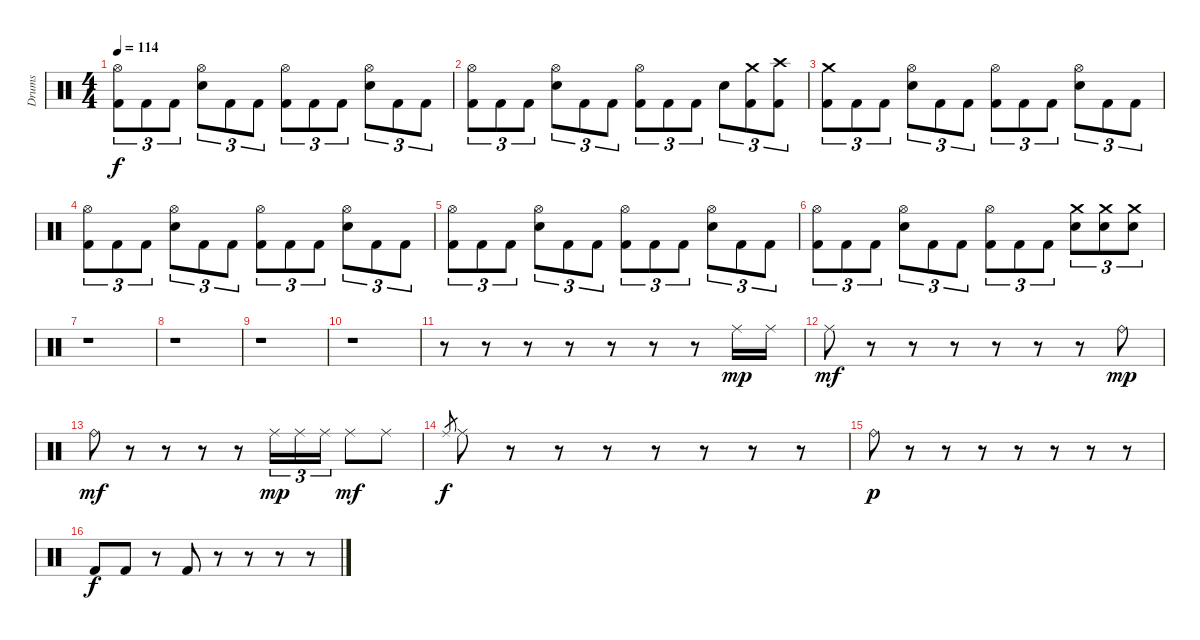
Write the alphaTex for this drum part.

\track ("Drums" "Drums") {instrument percussion}
\staff {score}
\articulation defaults
\ts (4 4)
\tempo 114
\clef neutral
\ks c
("Hi-Hat (open)" "Kick (hit) 2").8{tu (3 2) dy f} "Kick (hit) 2".8{tu (3 2)} "Kick (hit) 2".8{tu (3 2)} ("Hi-Hat (open)" "Snare (hit) 2").8{tu (3 2)} "Kick (hit) 2".8{tu (3 2)} "Kick (hit) 2".8{tu (3 2)} ("Hi-Hat (open)" "Kick (hit) 2").8{tu (3 2)} "Kick (hit) 2".8{tu (3 2)} "Kick (hit) 2".8{tu (3 2)} ("Hi-Hat (open)" "Snare (hit) 2").8{tu (3 2)} "Kick (hit) 2".8{tu (3 2)} "Kick (hit) 2".8{tu (3 2)} |
("Hi-Hat (open)" "Kick (hit) 2").8{tu (3 2)} "Kick (hit) 2".8{tu (3 2)} "Kick (hit) 2".8{tu (3 2)} ("Hi-Hat (open)" "Snare (hit) 2").8{tu (3 2)} "Kick (hit) 2".8{tu (3 2)} "Kick (hit) 2".8{tu (3 2)} ("Hi-Hat (open)" "Kick (hit) 2").8{tu (3 2)} "Kick (hit) 2".8{tu (3 2)} "Kick (hit) 2".8{tu (3 2)} "Snare (hit) 2".8{tu (3 2)} ("Crash medium (hit)" "Kick (hit) 2").8{tu (3 2)} ("Crash high (hit)" "Kick (hit) 2").8{tu (3 2)} |
("Crash medium (hit)" "Kick (hit) 2").8{tu (3 2)} "Kick (hit) 2".8{tu (3 2)} "Kick (hit) 2".8{tu (3 2)} ("Hi-Hat (open)" "Snare (hit) 2").8{tu (3 2)} "Kick (hit) 2".8{tu (3 2)} "Kick (hit) 2".8{tu (3 2)} ("Hi-Hat (open)" "Kick (hit) 2").8{tu (3 2)} "Kick (hit) 2".8{tu (3 2)} "Kick (hit) 2".8{tu (3 2)} ("Hi-Hat (open)" "Snare (hit) 2").8{tu (3 2)} "Kick (hit) 2".8{tu (3 2)} "Kick (hit) 2".8{tu (3 2)} |
("Hi-Hat (open)" "Kick (hit) 2").8{tu (3 2)} "Kick (hit) 2".8{tu (3 2)} "Kick (hit) 2".8{tu (3 2)} ("Hi-Hat (open)" "Snare (hit) 2").8{tu (3 2)} "Kick (hit) 2".8{tu (3 2)} "Kick (hit) 2".8{tu (3 2)} ("Hi-Hat (open)" "Kick (hit) 2").8{tu (3 2)} "Kick (hit) 2".8{tu (3 2)} "Kick (hit) 2".8{tu (3 2)} ("Hi-Hat (open)" "Snare (hit) 2").8{tu (3 2)} "Kick (hit) 2".8{tu (3 2)} "Kick (hit) 2".8{tu (3 2)} |
("Hi-Hat (open)" "Kick (hit) 2").8{tu (3 2)} "Kick (hit) 2".8{tu (3 2)} "Kick (hit) 2".8{tu (3 2)} ("Hi-Hat (open)" "Snare (hit) 2").8{tu (3 2)} "Kick (hit) 2".8{tu (3 2)} "Kick (hit) 2".8{tu (3 2)} ("Hi-Hat (open)" "Kick (hit) 2").8{tu (3 2)} "Kick (hit) 2".8{tu (3 2)} "Kick (hit) 2".8{tu (3 2)} ("Hi-Hat (open)" "Snare (hit) 2").8{tu (3 2)} "Kick (hit) 2".8{tu (3 2)} "Kick (hit) 2".8{tu (3 2)} |
("Hi-Hat (open)" "Kick (hit) 2").8{tu (3 2)} "Kick (hit) 2".8{tu (3 2)} "Kick (hit) 2".8{tu (3 2)} ("Hi-Hat (open)" "Snare (hit) 2").8{tu (3 2)} "Kick (hit) 2".8{tu (3 2)} "Kick (hit) 2".8{tu (3 2)} ("Hi-Hat (open)" "Kick (hit) 2").8{tu (3 2)} "Kick (hit) 2".8{tu (3 2)} "Kick (hit) 2".8{tu (3 2)} ("Crash medium (hit)" "Snare (hit) 2").8{tu (3 2)} ("Crash medium (hit)" "Snare (hit) 2").8{tu (3 2)} ("Crash medium (hit)" "Snare (hit) 2").8{tu (3 2)} |
r.1 |
r.1 |
r.1 |
r.1 |
r.8 r.8 r.8 r.8 r.8 r.8 r.8 "Ride (middle)".16{dy mp} "Ride (middle)".16 |
"Ride (middle)".8{dy mf} r.8 r.8 r.8 r.8 r.8 r.8 "Ride (bell)".8{dy mp} |
"Ride (bell)".8{dy mf} r.8 r.8 r.8 r.8 "Ride (middle)".16{tu (3 2) dy mp} "Ride (middle)".16{tu (3 2)} "Ride (middle)".16{tu (3 2)} "Ride (middle)".8{dy mf} "Ride (middle)".8 |
"Ride (middle)".8{gr dy f} "Ride (middle)".8 r.8 r.8 r.8 r.8 r.8 r.8 r.8 |
"Ride (bell)".8{dy p} r.8 r.8 r.8 r.8 r.8 r.8 r.8 |
"Kick (hit) 2".8{dy f} "Kick (hit) 2".8 r.8 "Kick (hit) 2".8 r.8 r.8 r.8 r.8
